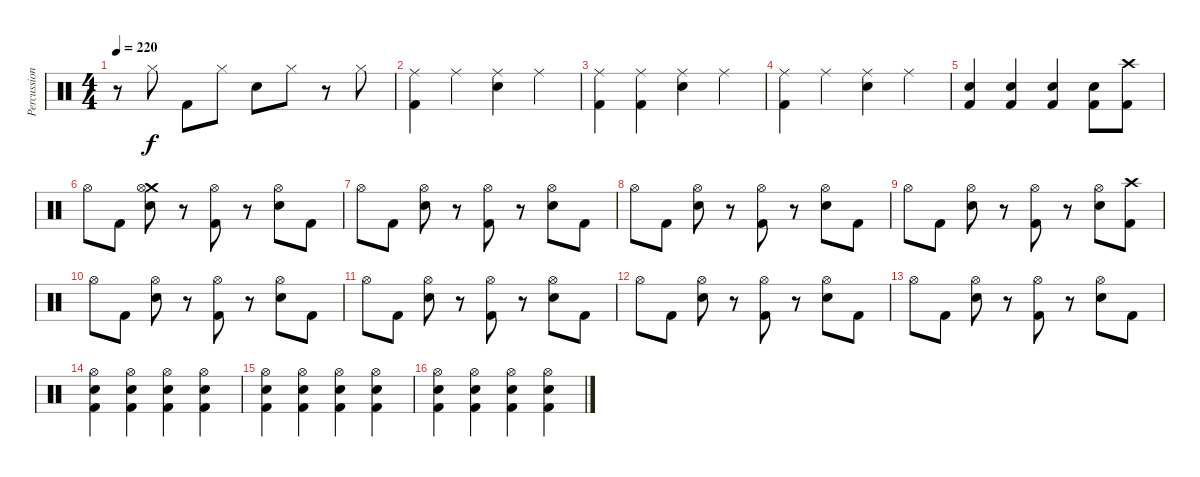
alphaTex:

\track ("Percussions" "Percussion") {instrument percussion}
\staff {score}
\articulation defaults
\ts (4 4)
\tempo 220
\clef neutral
\ks c
r.8{dy f} "Hi-Hat (closed)".8 "Kick (hit) 2".8 "Hi-Hat (closed)".8 "Electric Snare (hit)".8 "Hi-Hat (closed)".8 r.8 "Hi-Hat (closed)".8 |
("Ride (middle)" "Kick (hit) 2").4 "Ride (middle)".4 ("Ride (middle)" "Electric Snare (hit)").4 "Ride (middle)".4 |
("Ride (middle)" "Kick (hit) 2").4 ("Ride (middle)" "Kick (hit) 2").4 ("Ride (middle)" "Electric Snare (hit)").4 "Ride (middle)".4 |
("Ride (middle)" "Kick (hit) 2").4 "Ride (middle)".4 ("Ride (middle)" "Electric Snare (hit)").4 "Ride (middle)".4 |
("Electric Snare (hit)" "Kick (hit) 2").4 ("Electric Snare (hit)" "Kick (hit) 2").4 ("Electric Snare (hit)" "Kick (hit) 2").4 ("Electric Snare (hit)" "Kick (hit) 2").8 ("Crash high (hit)" "Kick (hit) 2").8 |
"Hi-Hat (open)".8 "Kick (hit) 2".8 ("Crash medium (hit)" "Hi-Hat (open)" "Electric Snare (hit)").8 r.8 ("Hi-Hat (open)" "Kick (hit) 2").8 r.8 ("Hi-Hat (open)" "Electric Snare (hit)").8 "Kick (hit) 2".8 |
"Hi-Hat (open)".8 "Kick (hit) 2".8 ("Hi-Hat (open)" "Electric Snare (hit)").8 r.8 ("Hi-Hat (open)" "Kick (hit) 2").8 r.8 ("Hi-Hat (open)" "Electric Snare (hit)").8 "Kick (hit) 2".8 |
"Hi-Hat (open)".8 "Kick (hit) 2".8 ("Hi-Hat (open)" "Electric Snare (hit)").8 r.8 ("Hi-Hat (open)" "Kick (hit) 2").8 r.8 ("Hi-Hat (open)" "Electric Snare (hit)").8 "Kick (hit) 2".8 |
"Hi-Hat (open)".8 "Kick (hit) 2".8 ("Hi-Hat (open)" "Electric Snare (hit)").8 r.8 ("Hi-Hat (open)" "Kick (hit) 2").8 r.8 ("Hi-Hat (open)" "Electric Snare (hit)").8 ("Crash high (hit)" "Kick (hit) 2").8 |
"Hi-Hat (open)".8 "Kick (hit) 2".8 ("Hi-Hat (open)" "Electric Snare (hit)").8 r.8 ("Hi-Hat (open)" "Kick (hit) 2").8 r.8 ("Hi-Hat (open)" "Electric Snare (hit)").8 "Kick (hit) 2".8 |
"Hi-Hat (open)".8 "Kick (hit) 2".8 ("Hi-Hat (open)" "Electric Snare (hit)").8 r.8 ("Hi-Hat (open)" "Kick (hit) 2").8 r.8 ("Hi-Hat (open)" "Electric Snare (hit)").8 "Kick (hit) 2".8 |
"Hi-Hat (open)".8 "Kick (hit) 2".8 ("Hi-Hat (open)" "Electric Snare (hit)").8 r.8 ("Hi-Hat (open)" "Kick (hit) 2").8 r.8 ("Hi-Hat (open)" "Electric Snare (hit)").8 "Kick (hit) 2".8 |
"Hi-Hat (open)".8 "Kick (hit) 2".8 ("Hi-Hat (open)" "Electric Snare (hit)").8 r.8 ("Hi-Hat (open)" "Kick (hit) 2").8 r.8 ("Hi-Hat (open)" "Electric Snare (hit)").8 "Kick (hit) 2".8 |
("Hi-Hat (open)" "Electric Snare (hit)" "Kick (hit) 2").4 ("Hi-Hat (open)" "Electric Snare (hit)" "Kick (hit) 2").4 ("Hi-Hat (open)" "Electric Snare (hit)" "Kick (hit) 2").4 ("Hi-Hat (open)" "Electric Snare (hit)" "Kick (hit) 2").4 |
("Hi-Hat (open)" "Electric Snare (hit)" "Kick (hit) 2").4 ("Hi-Hat (open)" "Electric Snare (hit)" "Kick (hit) 2").4 ("Hi-Hat (open)" "Electric Snare (hit)" "Kick (hit) 2").4 ("Hi-Hat (open)" "Electric Snare (hit)" "Kick (hit) 2").4 |
("Hi-Hat (open)" "Electric Snare (hit)" "Kick (hit) 2").4 ("Hi-Hat (open)" "Electric Snare (hit)" "Kick (hit) 2").4 ("Hi-Hat (open)" "Electric Snare (hit)" "Kick (hit) 2").4 ("Hi-Hat (open)" "Electric Snare (hit)" "Kick (hit) 2").4
